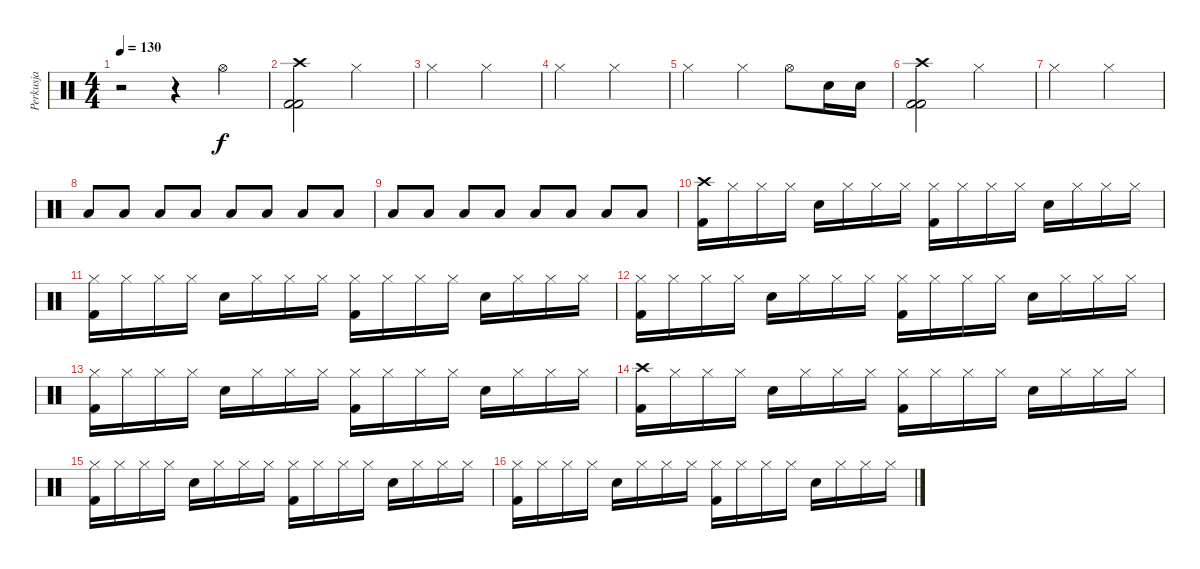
\track ("Perkusja" "Perkusja") {instrument percussion}
\staff {score}
\articulation defaults
\ts (4 4)
\tempo 130
\clef neutral
\ks c
r.2{dy f} r.4 "Hi-Hat (open)".4 |
("Crash high (hit)" "Kick (hit) 2" "Kick (hit) 2").2 "Hi-Hat (closed)".2 |
"Hi-Hat (closed)".2 "Hi-Hat (closed)".2 |
"Hi-Hat (closed)".2 "Hi-Hat (closed)".2 |
"Hi-Hat (closed)".2 "Hi-Hat (closed)".4 "Hi-Hat (open)".8 "Snare (hit) 2".16 "Snare (hit) 2".16 |
("Crash high (hit)" "Kick (hit) 2" "Kick (hit) 2").2 "Hi-Hat (closed)".2 |
"Hi-Hat (closed)".2 "Hi-Hat (closed)".2 |
"Low Floor Tom (hit)".8 "Low Floor Tom (hit)".8 "Low Floor Tom (hit)".8 "Low Floor Tom (hit)".8 "Low Floor Tom (hit)".8 "Low Floor Tom (hit)".8 "Low Floor Tom (hit)".8 "Low Floor Tom (hit)".8 |
"Low Floor Tom (hit)".8 "Low Floor Tom (hit)".8 "Low Floor Tom (hit)".8 "Low Floor Tom (hit)".8 "Low Floor Tom (hit)".8 "Low Floor Tom (hit)".8 "Low Floor Tom (hit)".8 "Low Floor Tom (hit)".8 |
("Crash high (hit)" "Kick (hit) 2").16 "Hi-Hat (closed)".16 "Hi-Hat (closed)".16 "Hi-Hat (closed)".16 "Snare (hit) 2".16 "Hi-Hat (closed)".16 "Hi-Hat (closed)".16 "Hi-Hat (closed)".16 ("Hi-Hat (closed)" "Kick (hit) 2").16 "Hi-Hat (closed)".16 "Hi-Hat (closed)".16 "Hi-Hat (closed)".16 "Snare (hit) 2".16 "Hi-Hat (closed)".16 "Hi-Hat (closed)".16 "Hi-Hat (closed)".16 |
("Hi-Hat (closed)" "Kick (hit) 2").16 "Hi-Hat (closed)".16 "Hi-Hat (closed)".16 "Hi-Hat (closed)".16 "Snare (hit) 2".16 "Hi-Hat (closed)".16 "Hi-Hat (closed)".16 "Hi-Hat (closed)".16 ("Hi-Hat (closed)" "Kick (hit) 2").16 "Hi-Hat (closed)".16 "Hi-Hat (closed)".16 "Hi-Hat (closed)".16 "Snare (hit) 2".16 "Hi-Hat (closed)".16 "Hi-Hat (closed)".16 "Hi-Hat (closed)".16 |
("Hi-Hat (closed)" "Kick (hit) 2").16 "Hi-Hat (closed)".16 "Hi-Hat (closed)".16 "Hi-Hat (closed)".16 "Snare (hit) 2".16 "Hi-Hat (closed)".16 "Hi-Hat (closed)".16 "Hi-Hat (closed)".16 ("Hi-Hat (closed)" "Kick (hit) 2").16 "Hi-Hat (closed)".16 "Hi-Hat (closed)".16 "Hi-Hat (closed)".16 "Snare (hit) 2".16 "Hi-Hat (closed)".16 "Hi-Hat (closed)".16 "Hi-Hat (closed)".16 |
("Hi-Hat (closed)" "Kick (hit) 2").16 "Hi-Hat (closed)".16 "Hi-Hat (closed)".16 "Hi-Hat (closed)".16 "Snare (hit) 2".16 "Hi-Hat (closed)".16 "Hi-Hat (closed)".16 "Hi-Hat (closed)".16 ("Hi-Hat (closed)" "Kick (hit) 2").16 "Hi-Hat (closed)".16 "Hi-Hat (closed)".16 "Hi-Hat (closed)".16 "Snare (hit) 2".16 "Hi-Hat (closed)".16 "Hi-Hat (closed)".16 "Hi-Hat (closed)".16 |
("Crash high (hit)" "Kick (hit) 2").16 "Hi-Hat (closed)".16 "Hi-Hat (closed)".16 "Hi-Hat (closed)".16 "Snare (hit) 2".16 "Hi-Hat (closed)".16 "Hi-Hat (closed)".16 "Hi-Hat (closed)".16 ("Hi-Hat (closed)" "Kick (hit) 2").16 "Hi-Hat (closed)".16 "Hi-Hat (closed)".16 "Hi-Hat (closed)".16 "Snare (hit) 2".16 "Hi-Hat (closed)".16 "Hi-Hat (closed)".16 "Hi-Hat (closed)".16 |
("Hi-Hat (closed)" "Kick (hit) 2").16 "Hi-Hat (closed)".16 "Hi-Hat (closed)".16 "Hi-Hat (closed)".16 "Snare (hit) 2".16 "Hi-Hat (closed)".16 "Hi-Hat (closed)".16 "Hi-Hat (closed)".16 ("Hi-Hat (closed)" "Kick (hit) 2").16 "Hi-Hat (closed)".16 "Hi-Hat (closed)".16 "Hi-Hat (closed)".16 "Snare (hit) 2".16 "Hi-Hat (closed)".16 "Hi-Hat (closed)".16 "Hi-Hat (closed)".16 |
("Hi-Hat (closed)" "Kick (hit) 2").16 "Hi-Hat (closed)".16 "Hi-Hat (closed)".16 "Hi-Hat (closed)".16 "Snare (hit) 2".16 "Hi-Hat (closed)".16 "Hi-Hat (closed)".16 "Hi-Hat (closed)".16 ("Hi-Hat (closed)" "Kick (hit) 2").16 "Hi-Hat (closed)".16 "Hi-Hat (closed)".16 "Hi-Hat (closed)".16 "Snare (hit) 2".16 "Hi-Hat (closed)".16 "Hi-Hat (closed)".16 "Hi-Hat (closed)".16
